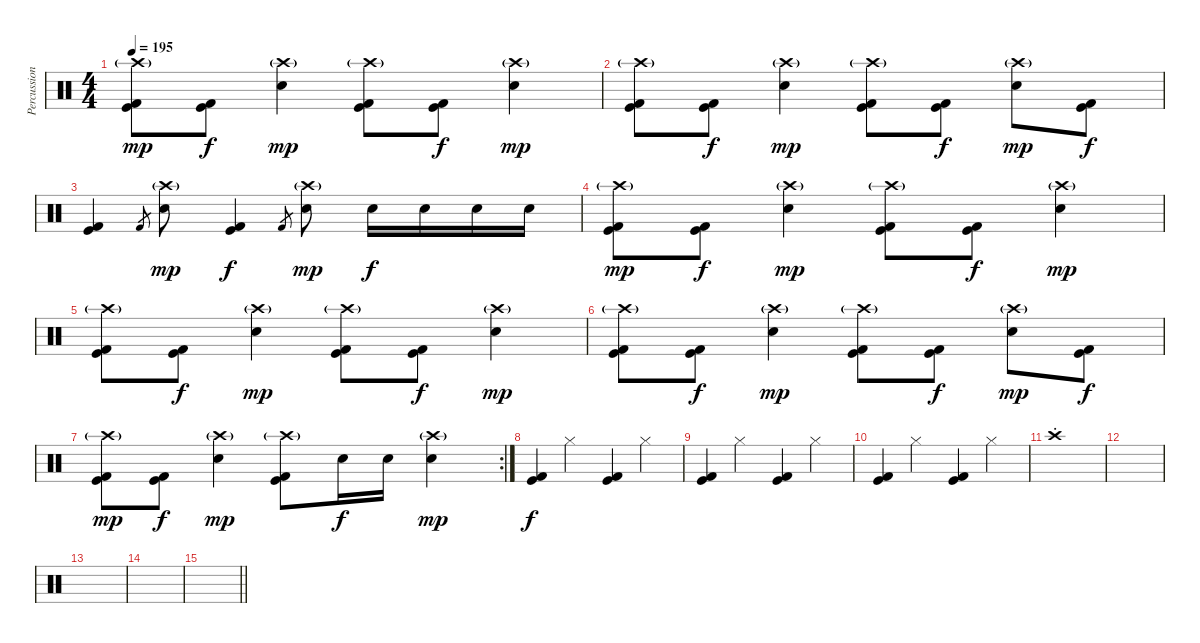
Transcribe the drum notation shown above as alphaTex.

\track ("Percussion" "Percussion") {instrument percussion}
\staff {score}
\articulation defaults
\ts (4 4)
\tempo 195
\clef neutral
\ks c
("Crash high (hit)"{g} "Kick (hit) 2" "Kick (hit)").8{dy mp} ("Kick (hit) 2" "Kick (hit)").8{dy f} ("Crash high (hit)"{g} "Electric Snare (hit)").4{dy mp} ("Crash high (hit)"{g} "Kick (hit) 2" "Kick (hit)").8 ("Kick (hit) 2" "Kick (hit)").8{dy f} ("Crash high (hit)"{g} "Electric Snare (hit)").4{dy mp} |
("Crash high (hit)"{g} "Kick (hit) 2" "Kick (hit)").8 ("Kick (hit) 2" "Kick (hit)").8{dy f} ("Crash high (hit)"{g} "Electric Snare (hit)").4{dy mp} ("Crash high (hit)"{g} "Kick (hit) 2" "Kick (hit)").8 ("Kick (hit) 2" "Kick (hit)").8{dy f} ("Crash high (hit)"{g} "Electric Snare (hit)").8{dy mp} ("Kick (hit)" "Kick (hit) 2").8{dy f} |
("Kick (hit)" "Kick (hit) 2").4 "Kick (hit) 2".8{gr} ("Crash high (hit)"{g} "Snare (hit) 2").8{dy mp} ("Kick (hit)" "Kick (hit) 2").4{dy f} "Kick (hit) 2".8{gr} ("Crash high (hit)"{g} "Snare (hit) 2").8{dy mp} "Snare (hit) 2".16{dy f} "Snare (hit) 2".16 "Snare (hit) 2".16 "Snare (hit) 2".16 |
("Crash high (hit)"{g} "Kick (hit) 2" "Kick (hit)").8{dy mp} ("Kick (hit) 2" "Kick (hit)").8{dy f} ("Crash high (hit)"{g} "Electric Snare (hit)").4{dy mp} ("Crash high (hit)"{g} "Kick (hit) 2" "Kick (hit)").8 ("Kick (hit) 2" "Kick (hit)").8{dy f} ("Crash high (hit)"{g} "Electric Snare (hit)").4{dy mp} |
("Crash high (hit)"{g} "Kick (hit) 2" "Kick (hit)").8 ("Kick (hit) 2" "Kick (hit)").8{dy f} ("Crash high (hit)"{g} "Electric Snare (hit)").4{dy mp} ("Crash high (hit)"{g} "Kick (hit) 2" "Kick (hit)").8 ("Kick (hit) 2" "Kick (hit)").8{dy f} ("Crash high (hit)"{g} "Electric Snare (hit)").4{dy mp} |
("Crash high (hit)"{g} "Kick (hit) 2" "Kick (hit)").8 ("Kick (hit) 2" "Kick (hit)").8{dy f} ("Crash high (hit)"{g} "Electric Snare (hit)").4{dy mp} ("Crash high (hit)"{g} "Kick (hit) 2" "Kick (hit)").8 ("Kick (hit) 2" "Kick (hit)").8{dy f} ("Crash high (hit)"{g} "Electric Snare (hit)").8{dy mp} ("Kick (hit)" "Kick (hit) 2").8{dy f} |
\rc 2
("Crash high (hit)"{g} "Kick (hit) 2" "Kick (hit)").8{dy mp} ("Kick (hit) 2" "Kick (hit)").8{dy f} ("Crash high (hit)"{g} "Electric Snare (hit)").4{dy mp} ("Crash high (hit)"{g} "Kick (hit) 2" "Kick (hit)").8 "Electric Snare (hit)".16{dy f} "Electric Snare (hit)".16 ("Crash high (hit)"{g} "Electric Snare (hit)").4{dy mp} |
("Kick (hit)" "Kick (hit) 2").4{dy f} "Hi-Hat (closed)".4 ("Kick (hit)" "Kick (hit) 2").4 "Hi-Hat (closed)".4 |
("Kick (hit)" "Kick (hit) 2").4 "Hi-Hat (closed)".4 ("Kick (hit)" "Kick (hit) 2").4 "Hi-Hat (closed)".4 |
("Kick (hit)" "Kick (hit) 2").4 "Hi-Hat (closed)".4 ("Kick (hit)" "Kick (hit) 2").4 "Hi-Hat (closed)".4 |
"Crash high (hit)"{st}.1 |
|
|
|
\barLineRight lightlight
